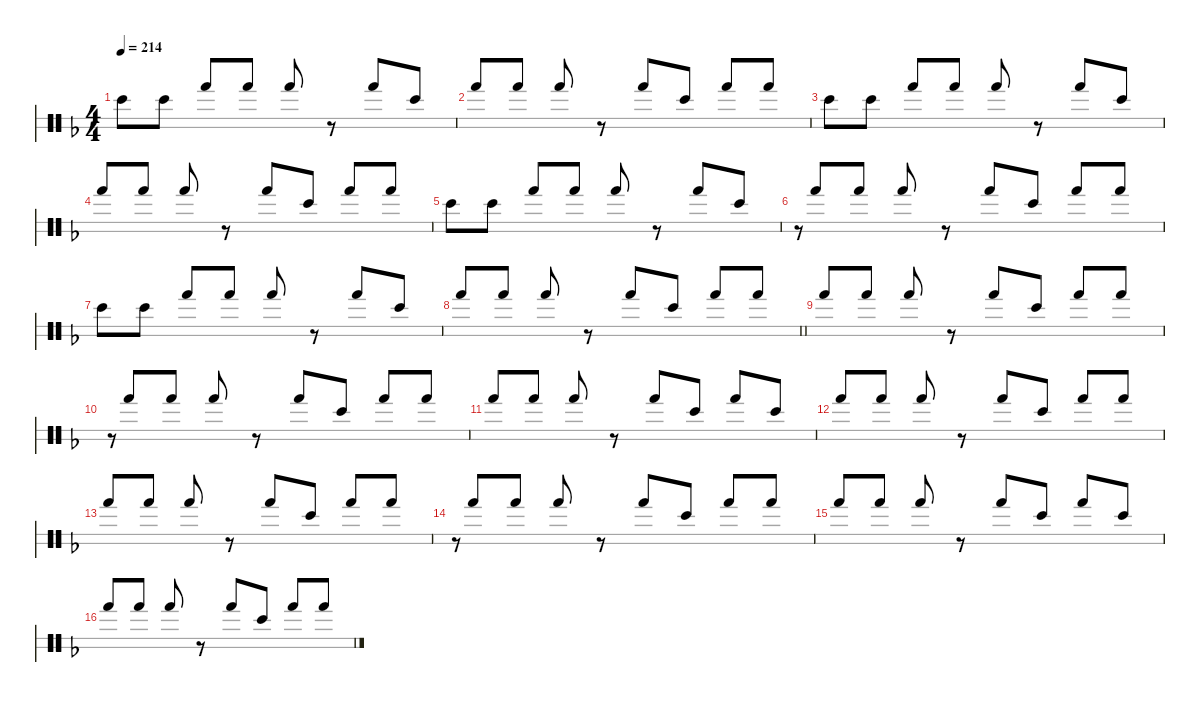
\hideDynamics
\bracketExtendMode nobrackets
\singleTrackTrackNamePolicy hidden
\multiTrackTrackNamePolicy hidden
\firstSystemTrackNameMode fullname
\firstSystemTrackNameOrientation horizontal
\otherSystemsTrackNameOrientation horizontal
\track ("Bongos" "bngKit") {instrument percussion}
\staff {score 2}
\articulation defaults
\ts (4 4)
\tempo 214
\clef neutral
\ks dminor "Bongo High (hit)"{acc forcenatural}.8{dy mp beam Down} "Bongo High (hit)"{acc forcenatural}.8{beam Down} "Hand (hit)"{acc forcenatural}.8{dy p beam Up} "Hand (hit)"{acc forcenatural}.8{beam Up} "Hand (hit)"{acc forcenatural}.8{dy mp beam Up}
r.8{beam Up} "Hand (hit)"{acc forcenatural}.8{beam Up} "Bongo High (hit)"{acc forcenatural}.8{beam Up} |
"Hand (hit)"{acc forcenatural}.8{dy p beam Up} "Hand (hit)"{acc forcenatural}.8{beam Up} "Hand (hit)"{acc forcenatural}.8{dy mp beam Up} r.8{beam Up} "Hand (hit)"{acc forcenatural}.8{beam Up} "Bongo High (hit)"{acc forcenatural}.8{beam Up} "Hand (hit)"{acc forcenatural}.8{dy p beam Up} "Hand (hit)"{acc forcenatural}.8{beam Up} |
"Bongo High (hit)"{acc forcenatural}.8{dy mp beam Down} "Bongo High (hit)"{acc forcenatural}.8{beam Down} "Hand (hit)"{acc forcenatural}.8{dy p beam Up} "Hand (hit)"{acc forcenatural}.8{beam Up} "Hand (hit)"{acc forcenatural}.8{dy mp beam Up} r.8{beam Up} "Hand (hit)"{acc forcenatural}.8{beam Up} "Bongo High (hit)"{acc forcenatural}.8{beam Up} |
"Hand (hit)"{acc forcenatural}.8{dy p beam Up} "Hand (hit)"{acc forcenatural}.8{beam Up} "Hand (hit)"{acc forcenatural}.8{dy mp beam Up} r.8{beam Up} "Hand (hit)"{acc forcenatural}.8{beam Up} "Bongo High (hit)"{acc forcenatural}.8{beam Up} "Hand (hit)"{acc forcenatural}.8{dy p beam Up} "Hand (hit)"{acc forcenatural}.8{beam Up} |
"Bongo High (hit)"{acc forcenatural}.8{dy mp beam Down} "Bongo High (hit)"{acc forcenatural}.8{beam Down} "Hand (hit)"{acc forcenatural}.8{dy p beam Up} "Hand (hit)"{acc forcenatural}.8{beam Up} "Hand (hit)"{acc forcenatural}.8{dy mp beam Up} r.8{beam Up} "Hand (hit)"{acc forcenatural}.8{beam Up} "Bongo High (hit)"{acc forcenatural}.8{beam Up} |
r.8{gr beam Up} "Hand (hit)"{acc forcenatural}.8{dy p beam Up} "Hand (hit)"{acc forcenatural}.8{beam Up} "Hand (hit)"{acc forcenatural}.8{dy mp beam Up} r.8{beam Up} "Hand (hit)"{acc forcenatural}.8{beam Up} "Bongo High (hit)"{acc forcenatural}.8{beam Up} "Hand (hit)"{acc forcenatural}.8{dy p beam Up} "Hand (hit)"{acc forcenatural}.8{beam Up} |
"Bongo High (hit)"{acc forcenatural}.8{dy mp beam Down} "Bongo High (hit)"{acc forcenatural}.8{beam Down} "Hand (hit)"{acc forcenatural}.8{dy p beam Up} "Hand (hit)"{acc forcenatural}.8{beam Up} "Hand (hit)"{acc forcenatural}.8{dy mp beam Up} r.8{beam Up} "Hand (hit)"{acc forcenatural}.8{beam Up} "Bongo High (hit)"{acc forcenatural}.8{beam Up} |
\barLineRight lightlight "Hand (hit)"{acc forcenatural}.8{dy p beam Up} "Hand (hit)"{acc forcenatural}.8{beam Up} "Hand (hit)"{acc forcenatural}.8{dy mp beam Up}
r.8{beam Up} "Hand (hit)"{acc forcenatural}.8{beam Up} "Bongo High (hit)"{acc forcenatural}.8{beam Up} "Hand (hit)"{acc forcenatural}.8{dy p beam Up} "Hand (hit)"{acc forcenatural}.8{beam Up} |
"Hand (hit)"{acc forcenatural}.8{beam Up} "Hand (hit)"{acc forcenatural}.8{beam Up} "Hand (hit)"{acc forcenatural}.8{dy mp beam Up} r.8{beam Up} "Hand (hit)"{acc forcenatural}.8{beam Up} "Bongo High (hit)"{acc forcenatural}.8{beam Up} "Hand (hit)"{acc forcenatural}.8{beam Up} "Hand (hit)"{acc forcenatural}.8{dy p beam Up} |
r.8{gr beam Up} "Hand (hit)"{acc forcenatural}.8{beam Up} "Hand (hit)"{acc forcenatural}.8{beam Up} "Hand (hit)"{acc forcenatural}.8{dy mp beam Up} r.8{beam Up} "Hand (hit)"{acc forcenatural}.8{beam Up} "Bongo High (hit)"{acc forcenatural}.8{beam Up} "Hand (hit)"{acc forcenatural}.8{beam Up} "Hand (hit)"{acc forcenatural}.8{dy p beam Up} |
"Hand (hit)"{acc forcenatural}.8{beam Up} "Hand (hit)"{acc forcenatural}.8{beam Up} "Hand (hit)"{acc forcenatural}.8{dy mp beam Up} r.8{beam Up} "Hand (hit)"{acc forcenatural}.8{beam Up} "Bongo High (hit)"{acc forcenatural}.8{beam Up} "Hand (hit)"{acc forcenatural}.8{beam Up} "Bongo High (hit)"{acc forcenatural}.8{dy p beam Up} |
"Hand (hit)"{acc forcenatural}.8{dy mp beam Up} "Hand (hit)"{acc forcenatural}.8{dy p beam Up} "Hand (hit)"{acc forcenatural}.8{dy mp beam Up} r.8{beam Up} "Hand (hit)"{acc forcenatural}.8{beam Up} "Bongo High (hit)"{acc forcenatural}.8{beam Up} "Hand (hit)"{acc forcenatural}.8{dy p beam Up} "Hand (hit)"{acc forcenatural}.8{beam Up} |
"Hand (hit)"{acc forcenatural}.8{beam Up} "Hand (hit)"{acc forcenatural}.8{beam Up} "Hand (hit)"{acc forcenatural}.8{dy mp beam Up} r.8{beam Up} "Hand (hit)"{acc forcenatural}.8{beam Up} "Bongo High (hit)"{acc forcenatural}.8{beam Up} "Hand (hit)"{acc forcenatural}.8{beam Up} "Hand (hit)"{acc forcenatural}.8{dy p beam Up} |
r.8{gr beam Up} "Hand (hit)"{acc forcenatural}.8{beam Up} "Hand (hit)"{acc forcenatural}.8{beam Up} "Hand (hit)"{acc forcenatural}.8{dy mp beam Up} r.8{beam Up} "Hand (hit)"{acc forcenatural}.8{beam Up} "Bongo High (hit)"{acc forcenatural}.8{beam Up} "Hand (hit)"{acc forcenatural}.8{beam Up} "Hand (hit)"{acc forcenatural}.8{dy p beam Up} |
"Hand (hit)"{acc forcenatural}.8{beam Up} "Hand (hit)"{acc forcenatural}.8{beam Up} "Hand (hit)"{acc forcenatural}.8{dy mp beam Up} r.8{beam Up} "Hand (hit)"{acc forcenatural}.8{beam Up} "Bongo High (hit)"{acc forcenatural}.8{beam Up} "Hand (hit)"{acc forcenatural}.8{beam Up} "Bongo High (hit)"{acc forcenatural}.8{dy p beam Up} |
"Hand (hit)"{acc forcenatural}.8{dy mp beam Up} "Hand (hit)"{acc forcenatural}.8{dy p beam Up} "Hand (hit)"{acc forcenatural}.8{dy mp beam Up} r.8{beam Up} "Hand (hit)"{acc forcenatural}.8{beam Up} "Bongo High (hit)"{acc forcenatural}.8{beam Up} "Hand (hit)"{acc forcenatural}.8{dy p beam Up} "Hand (hit)"{acc forcenatural}.8{beam Up}
